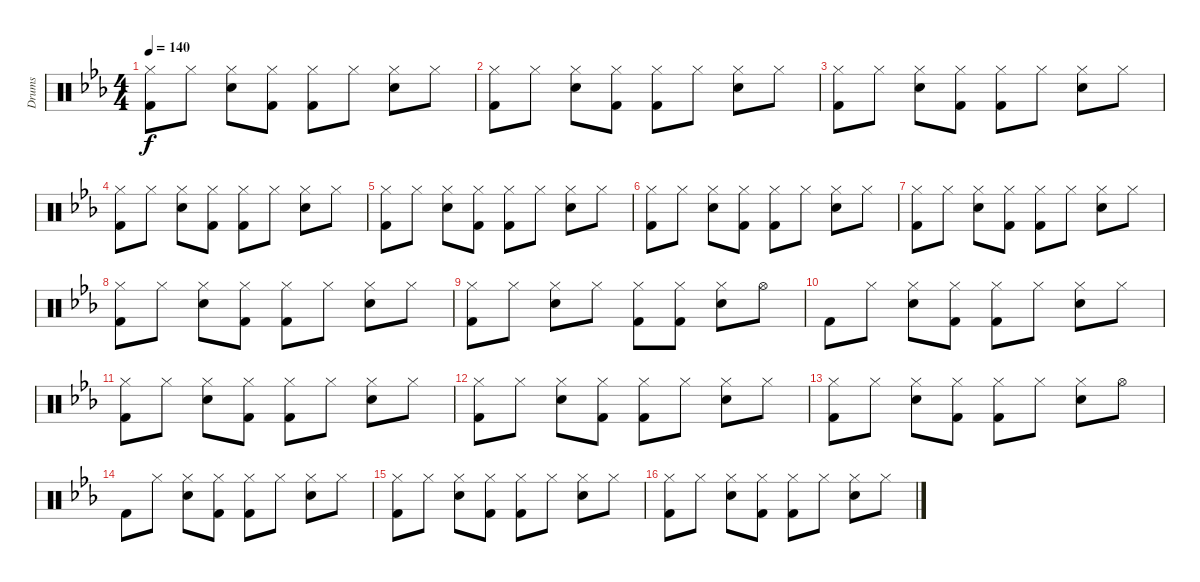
\track ("Drums" "Drums") {instrument percussion}
\staff {score}
\articulation defaults
\ts (4 4)
\tempo 140
\clef neutral
\ks eb
("Hi-Hat (closed)" "Kick (hit) 2").8{dy f} "Hi-Hat (closed)".8 ("Hi-Hat (closed)" "Electric Snare (hit)").8 ("Hi-Hat (closed)" "Kick (hit) 2").8 ("Hi-Hat (closed)" "Kick (hit) 2").8 "Hi-Hat (closed)".8 ("Hi-Hat (closed)" "Electric Snare (hit)").8 "Hi-Hat (closed)".8 |
("Hi-Hat (closed)" "Kick (hit) 2").8 "Hi-Hat (closed)".8 ("Hi-Hat (closed)" "Electric Snare (hit)").8 ("Hi-Hat (closed)" "Kick (hit) 2").8 ("Hi-Hat (closed)" "Kick (hit) 2").8 "Hi-Hat (closed)".8 ("Hi-Hat (closed)" "Electric Snare (hit)").8 "Hi-Hat (closed)".8 |
("Hi-Hat (closed)" "Kick (hit) 2").8 "Hi-Hat (closed)".8 ("Hi-Hat (closed)" "Electric Snare (hit)").8 ("Hi-Hat (closed)" "Kick (hit) 2").8 ("Hi-Hat (closed)" "Kick (hit) 2").8 "Hi-Hat (closed)".8 ("Hi-Hat (closed)" "Electric Snare (hit)").8 "Hi-Hat (closed)".8 |
("Hi-Hat (closed)" "Kick (hit) 2").8 "Hi-Hat (closed)".8 ("Hi-Hat (closed)" "Electric Snare (hit)").8 ("Hi-Hat (closed)" "Kick (hit) 2").8 ("Hi-Hat (closed)" "Kick (hit) 2").8 "Hi-Hat (closed)".8 ("Hi-Hat (closed)" "Electric Snare (hit)").8 "Hi-Hat (closed)".8 |
("Hi-Hat (closed)" "Kick (hit) 2").8 "Hi-Hat (closed)".8 ("Hi-Hat (closed)" "Electric Snare (hit)").8 ("Hi-Hat (closed)" "Kick (hit) 2").8 ("Hi-Hat (closed)" "Kick (hit) 2").8 "Hi-Hat (closed)".8 ("Hi-Hat (closed)" "Electric Snare (hit)").8 "Hi-Hat (closed)".8 |
("Hi-Hat (closed)" "Kick (hit) 2").8 "Hi-Hat (closed)".8 ("Hi-Hat (closed)" "Electric Snare (hit)").8 ("Hi-Hat (closed)" "Kick (hit) 2").8 ("Hi-Hat (closed)" "Kick (hit) 2").8 "Hi-Hat (closed)".8 ("Hi-Hat (closed)" "Electric Snare (hit)").8 "Hi-Hat (closed)".8 |
("Hi-Hat (closed)" "Kick (hit) 2").8 "Hi-Hat (closed)".8 ("Hi-Hat (closed)" "Electric Snare (hit)").8 ("Hi-Hat (closed)" "Kick (hit) 2").8 ("Hi-Hat (closed)" "Kick (hit) 2").8 "Hi-Hat (closed)".8 ("Hi-Hat (closed)" "Electric Snare (hit)").8 "Hi-Hat (closed)".8 |
("Hi-Hat (closed)" "Kick (hit) 2").8 "Hi-Hat (closed)".8 ("Hi-Hat (closed)" "Electric Snare (hit)").8 ("Hi-Hat (closed)" "Kick (hit) 2").8 ("Hi-Hat (closed)" "Kick (hit) 2").8 "Hi-Hat (closed)".8 ("Hi-Hat (closed)" "Electric Snare (hit)").8 "Hi-Hat (closed)".8 |
("Hi-Hat (closed)" "Kick (hit) 2").8 "Hi-Hat (closed)".8 ("Hi-Hat (closed)" "Electric Snare (hit)").8 "Hi-Hat (closed)".8 ("Hi-Hat (closed)" "Kick (hit) 2").8 ("Hi-Hat (closed)" "Kick (hit) 2").8 ("Hi-Hat (closed)" "Electric Snare (hit)").8 "Hi-Hat (open)".8 |
"Kick (hit) 2".8 "Hi-Hat (closed)".8 ("Hi-Hat (closed)" "Electric Snare (hit)").8 ("Hi-Hat (closed)" "Kick (hit) 2").8 ("Hi-Hat (closed)" "Kick (hit) 2").8 "Hi-Hat (closed)".8 ("Hi-Hat (closed)" "Electric Snare (hit)").8 "Hi-Hat (closed)".8 |
("Hi-Hat (closed)" "Kick (hit) 2").8 "Hi-Hat (closed)".8 ("Hi-Hat (closed)" "Electric Snare (hit)").8 ("Hi-Hat (closed)" "Kick (hit) 2").8 ("Hi-Hat (closed)" "Kick (hit) 2").8 "Hi-Hat (closed)".8 ("Hi-Hat (closed)" "Electric Snare (hit)").8 "Hi-Hat (closed)".8 |
("Hi-Hat (closed)" "Kick (hit) 2").8 "Hi-Hat (closed)".8 ("Hi-Hat (closed)" "Electric Snare (hit)").8 ("Hi-Hat (closed)" "Kick (hit) 2").8 ("Hi-Hat (closed)" "Kick (hit) 2").8 "Hi-Hat (closed)".8 ("Hi-Hat (closed)" "Electric Snare (hit)").8 "Hi-Hat (closed)".8 |
("Hi-Hat (closed)" "Kick (hit) 2").8 "Hi-Hat (closed)".8 ("Hi-Hat (closed)" "Electric Snare (hit)").8 ("Hi-Hat (closed)" "Kick (hit) 2").8 ("Hi-Hat (closed)" "Kick (hit) 2").8 "Hi-Hat (closed)".8 ("Hi-Hat (closed)" "Electric Snare (hit)").8 "Hi-Hat (open)".8 |
"Kick (hit) 2".8 "Hi-Hat (closed)".8 ("Hi-Hat (closed)" "Electric Snare (hit)").8 ("Hi-Hat (closed)" "Kick (hit) 2").8 ("Hi-Hat (closed)" "Kick (hit) 2").8 "Hi-Hat (closed)".8 ("Hi-Hat (closed)" "Electric Snare (hit)").8 "Hi-Hat (closed)".8 |
("Hi-Hat (closed)" "Kick (hit) 2").8 "Hi-Hat (closed)".8 ("Hi-Hat (closed)" "Electric Snare (hit)").8 ("Hi-Hat (closed)" "Kick (hit) 2").8 ("Hi-Hat (closed)" "Kick (hit) 2").8 "Hi-Hat (closed)".8 ("Hi-Hat (closed)" "Electric Snare (hit)").8 "Hi-Hat (closed)".8 |
("Hi-Hat (closed)" "Kick (hit) 2").8 "Hi-Hat (closed)".8 ("Hi-Hat (closed)" "Electric Snare (hit)").8 ("Hi-Hat (closed)" "Kick (hit) 2").8 ("Hi-Hat (closed)" "Kick (hit) 2").8 "Hi-Hat (closed)".8 ("Hi-Hat (closed)" "Electric Snare (hit)").8 "Hi-Hat (closed)".8
